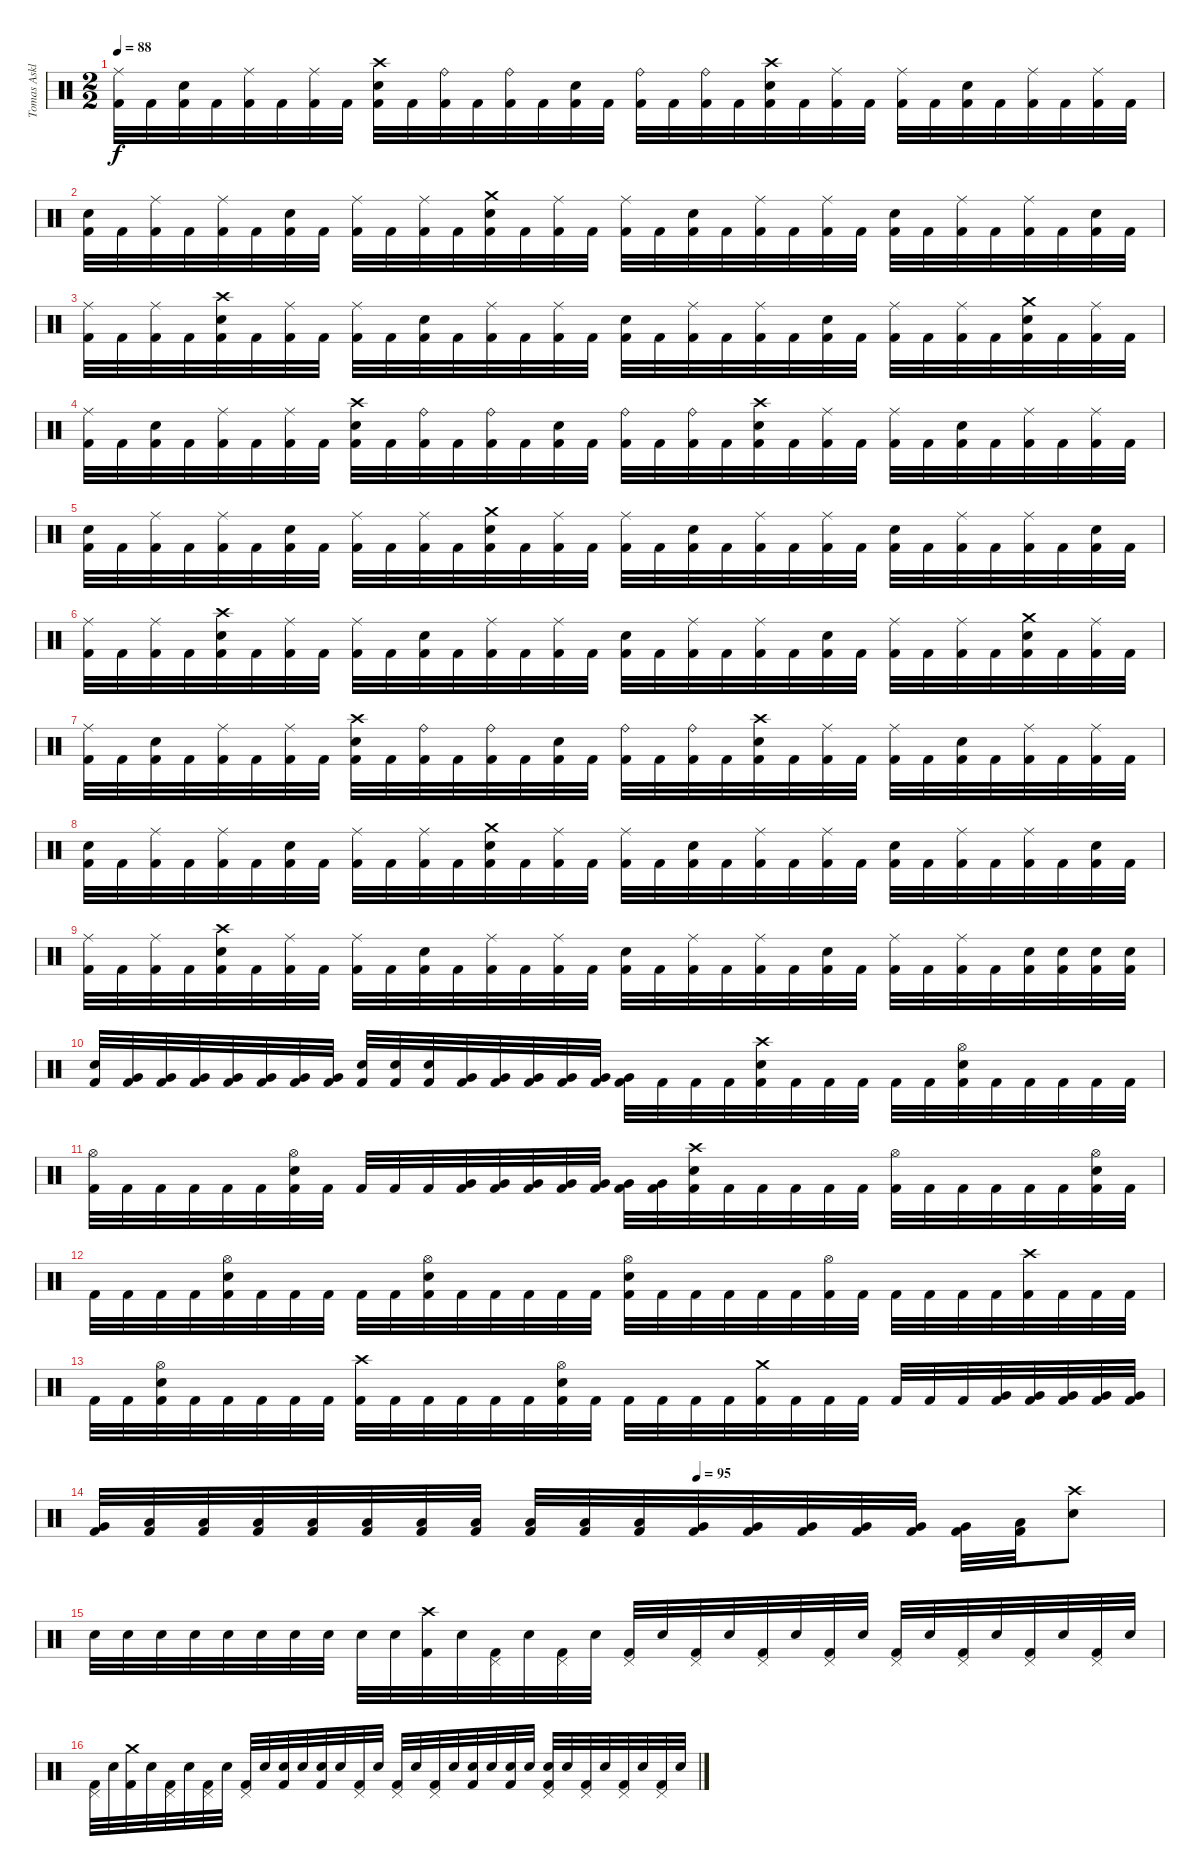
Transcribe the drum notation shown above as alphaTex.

\track ("Tomas Asklund" "Tomas Askl") {instrument percussion}
\staff {score}
\articulation defaults
\ts (2 2)
\tempo 88
\clef neutral
\ks c
("Ride (middle)" "Kick (hit) 2").32{dy f} "Kick (hit) 2".32 ("Snare (hit) 2" "Kick (hit) 2").32 "Kick (hit) 2".32 ("Ride (middle)" "Kick (hit) 2").32 "Kick (hit) 2".32 ("Ride (middle)" "Kick (hit) 2").32 "Kick (hit) 2".32 ("Crash high (hit)" "Snare (hit) 2" "Kick (hit) 2").32 "Kick (hit) 2".32 ("Ride (bell)" "Kick (hit) 2").32 "Kick (hit) 2".32 ("Ride (bell)" "Kick (hit) 2").32 "Kick (hit) 2".32 ("Snare (hit) 2" "Kick (hit) 2").32 "Kick (hit) 2".32 ("Ride (bell)" "Kick (hit) 2").32 "Kick (hit) 2".32 ("Ride (bell)" "Kick (hit) 2").32 "Kick (hit) 2".32 ("Crash high (hit)" "Snare (hit) 2" "Kick (hit) 2").32 "Kick (hit) 2".32 ("Ride (middle)" "Kick (hit) 2").32 "Kick (hit) 2".32 ("Ride (middle)" "Kick (hit) 2").32 "Kick (hit) 2".32 ("Snare (hit) 2" "Kick (hit) 2").32 "Kick (hit) 2".32 ("Ride (middle)" "Kick (hit) 2").32 "Kick (hit) 2".32 ("Ride (middle)" "Kick (hit) 2").32 "Kick (hit) 2".32 |
("Snare (hit) 2" "Kick (hit) 2").32 "Kick (hit) 2".32 ("Ride (middle)" "Kick (hit) 2").32 "Kick (hit) 2".32 ("Ride (middle)" "Kick (hit) 2").32 "Kick (hit) 2".32 ("Snare (hit) 2" "Kick (hit) 2").32 "Kick (hit) 2".32 ("Ride (middle)" "Kick (hit) 2").32 "Kick (hit) 2".32 ("Ride (middle)" "Kick (hit) 2").32 "Kick (hit) 2".32 ("Crash medium (hit)" "Snare (hit) 2" "Kick (hit) 2").32 "Kick (hit) 2".32 ("Ride (middle)" "Kick (hit) 2").32 "Kick (hit) 2".32 ("Ride (middle)" "Kick (hit) 2").32 "Kick (hit) 2".32 ("Snare (hit) 2" "Kick (hit) 2").32 "Kick (hit) 2".32 ("Ride (middle)" "Kick (hit) 2").32 "Kick (hit) 2".32 ("Ride (middle)" "Kick (hit) 2").32 "Kick (hit) 2".32 ("Snare (hit) 2" "Kick (hit) 2").32 "Kick (hit) 2".32 ("Ride (middle)" "Kick (hit) 2").32 "Kick (hit) 2".32 ("Ride (middle)" "Kick (hit) 2").32 "Kick (hit) 2".32 ("Snare (hit) 2" "Kick (hit) 2").32 "Kick (hit) 2".32 |
("Ride (middle)" "Kick (hit) 2").32 "Kick (hit) 2".32 ("Ride (middle)" "Kick (hit) 2").32 "Kick (hit) 2".32 ("Crash high (hit)" "Snare (hit) 2" "Kick (hit) 2").32 "Kick (hit) 2".32 ("Ride (middle)" "Kick (hit) 2").32 "Kick (hit) 2".32 ("Ride (middle)" "Kick (hit) 2").32 "Kick (hit) 2".32 ("Snare (hit) 2" "Kick (hit) 2").32 "Kick (hit) 2".32 ("Ride (middle)" "Kick (hit) 2").32 "Kick (hit) 2".32 ("Ride (middle)" "Kick (hit) 2").32 "Kick (hit) 2".32 ("Snare (hit) 2" "Kick (hit) 2").32 "Kick (hit) 2".32 ("Ride (middle)" "Kick (hit) 2").32 "Kick (hit) 2".32 ("Ride (middle)" "Kick (hit) 2").32 "Kick (hit) 2".32 ("Snare (hit) 2" "Kick (hit) 2").32 "Kick (hit) 2".32 ("Ride (middle)" "Kick (hit) 2").32 "Kick (hit) 2".32 ("Ride (middle)" "Kick (hit) 2").32 "Kick (hit) 2".32 ("Crash medium (hit)" "Snare (hit) 2" "Kick (hit) 2").32 "Kick (hit) 2".32 ("Ride (middle)" "Kick (hit) 2").32 "Kick (hit) 2".32 |
("Ride (middle)" "Kick (hit) 2").32 "Kick (hit) 2".32 ("Snare (hit) 2" "Kick (hit) 2").32 "Kick (hit) 2".32 ("Ride (middle)" "Kick (hit) 2").32 "Kick (hit) 2".32 ("Ride (middle)" "Kick (hit) 2").32 "Kick (hit) 2".32 ("Crash high (hit)" "Snare (hit) 2" "Kick (hit) 2").32 "Kick (hit) 2".32 ("Ride (bell)" "Kick (hit) 2").32 "Kick (hit) 2".32 ("Ride (bell)" "Kick (hit) 2").32 "Kick (hit) 2".32 ("Snare (hit) 2" "Kick (hit) 2").32 "Kick (hit) 2".32 ("Ride (bell)" "Kick (hit) 2").32 "Kick (hit) 2".32 ("Ride (bell)" "Kick (hit) 2").32 "Kick (hit) 2".32 ("Crash high (hit)" "Snare (hit) 2" "Kick (hit) 2").32 "Kick (hit) 2".32 ("Ride (middle)" "Kick (hit) 2").32 "Kick (hit) 2".32 ("Ride (middle)" "Kick (hit) 2").32 "Kick (hit) 2".32 ("Snare (hit) 2" "Kick (hit) 2").32 "Kick (hit) 2".32 ("Ride (middle)" "Kick (hit) 2").32 "Kick (hit) 2".32 ("Ride (middle)" "Kick (hit) 2").32 "Kick (hit) 2".32 |
("Snare (hit) 2" "Kick (hit) 2").32 "Kick (hit) 2".32 ("Ride (middle)" "Kick (hit) 2").32 "Kick (hit) 2".32 ("Ride (middle)" "Kick (hit) 2").32 "Kick (hit) 2".32 ("Snare (hit) 2" "Kick (hit) 2").32 "Kick (hit) 2".32 ("Ride (middle)" "Kick (hit) 2").32 "Kick (hit) 2".32 ("Ride (middle)" "Kick (hit) 2").32 "Kick (hit) 2".32 ("Crash medium (hit)" "Snare (hit) 2" "Kick (hit) 2").32 "Kick (hit) 2".32 ("Ride (middle)" "Kick (hit) 2").32 "Kick (hit) 2".32 ("Ride (middle)" "Kick (hit) 2").32 "Kick (hit) 2".32 ("Snare (hit) 2" "Kick (hit) 2").32 "Kick (hit) 2".32 ("Ride (middle)" "Kick (hit) 2").32 "Kick (hit) 2".32 ("Ride (middle)" "Kick (hit) 2").32 "Kick (hit) 2".32 ("Snare (hit) 2" "Kick (hit) 2").32 "Kick (hit) 2".32 ("Ride (middle)" "Kick (hit) 2").32 "Kick (hit) 2".32 ("Ride (middle)" "Kick (hit) 2").32 "Kick (hit) 2".32 ("Snare (hit) 2" "Kick (hit) 2").32 "Kick (hit) 2".32 |
("Ride (middle)" "Kick (hit) 2").32 "Kick (hit) 2".32 ("Ride (middle)" "Kick (hit) 2").32 "Kick (hit) 2".32 ("Crash high (hit)" "Snare (hit) 2" "Kick (hit) 2").32 "Kick (hit) 2".32 ("Ride (middle)" "Kick (hit) 2").32 "Kick (hit) 2".32 ("Ride (middle)" "Kick (hit) 2").32 "Kick (hit) 2".32 ("Snare (hit) 2" "Kick (hit) 2").32 "Kick (hit) 2".32 ("Ride (middle)" "Kick (hit) 2").32 "Kick (hit) 2".32 ("Ride (middle)" "Kick (hit) 2").32 "Kick (hit) 2".32 ("Snare (hit) 2" "Kick (hit) 2").32 "Kick (hit) 2".32 ("Ride (middle)" "Kick (hit) 2").32 "Kick (hit) 2".32 ("Ride (middle)" "Kick (hit) 2").32 "Kick (hit) 2".32 ("Snare (hit) 2" "Kick (hit) 2").32 "Kick (hit) 2".32 ("Ride (middle)" "Kick (hit) 2").32 "Kick (hit) 2".32 ("Ride (middle)" "Kick (hit) 2").32 "Kick (hit) 2".32 ("Crash medium (hit)" "Snare (hit) 2" "Kick (hit) 2").32 "Kick (hit) 2".32 ("Ride (middle)" "Kick (hit) 2").32 "Kick (hit) 2".32 |
("Ride (middle)" "Kick (hit) 2").32 "Kick (hit) 2".32 ("Snare (hit) 2" "Kick (hit) 2").32 "Kick (hit) 2".32 ("Ride (middle)" "Kick (hit) 2").32 "Kick (hit) 2".32 ("Ride (middle)" "Kick (hit) 2").32 "Kick (hit) 2".32 ("Crash high (hit)" "Snare (hit) 2" "Kick (hit) 2").32 "Kick (hit) 2".32 ("Ride (bell)" "Kick (hit) 2").32 "Kick (hit) 2".32 ("Ride (bell)" "Kick (hit) 2").32 "Kick (hit) 2".32 ("Snare (hit) 2" "Kick (hit) 2").32 "Kick (hit) 2".32 ("Ride (bell)" "Kick (hit) 2").32 "Kick (hit) 2".32 ("Ride (bell)" "Kick (hit) 2").32 "Kick (hit) 2".32 ("Crash high (hit)" "Snare (hit) 2" "Kick (hit) 2").32 "Kick (hit) 2".32 ("Ride (middle)" "Kick (hit) 2").32 "Kick (hit) 2".32 ("Ride (middle)" "Kick (hit) 2").32 "Kick (hit) 2".32 ("Snare (hit) 2" "Kick (hit) 2").32 "Kick (hit) 2".32 ("Ride (middle)" "Kick (hit) 2").32 "Kick (hit) 2".32 ("Ride (middle)" "Kick (hit) 2").32 "Kick (hit) 2".32 |
("Snare (hit) 2" "Kick (hit) 2").32 "Kick (hit) 2".32 ("Ride (middle)" "Kick (hit) 2").32 "Kick (hit) 2".32 ("Ride (middle)" "Kick (hit) 2").32 "Kick (hit) 2".32 ("Snare (hit) 2" "Kick (hit) 2").32 "Kick (hit) 2".32 ("Ride (middle)" "Kick (hit) 2").32 "Kick (hit) 2".32 ("Ride (middle)" "Kick (hit) 2").32 "Kick (hit) 2".32 ("Crash medium (hit)" "Snare (hit) 2" "Kick (hit) 2").32 "Kick (hit) 2".32 ("Ride (middle)" "Kick (hit) 2").32 "Kick (hit) 2".32 ("Ride (middle)" "Kick (hit) 2").32 "Kick (hit) 2".32 ("Snare (hit) 2" "Kick (hit) 2").32 "Kick (hit) 2".32 ("Ride (middle)" "Kick (hit) 2").32 "Kick (hit) 2".32 ("Ride (middle)" "Kick (hit) 2").32 "Kick (hit) 2".32 ("Snare (hit) 2" "Kick (hit) 2").32 "Kick (hit) 2".32 ("Ride (middle)" "Kick (hit) 2").32 "Kick (hit) 2".32 ("Ride (middle)" "Kick (hit) 2").32 "Kick (hit) 2".32 ("Snare (hit) 2" "Kick (hit) 2").32 "Kick (hit) 2".32 |
("Ride (middle)" "Kick (hit) 2").32 "Kick (hit) 2".32 ("Ride (middle)" "Kick (hit) 2").32 "Kick (hit) 2".32 ("Crash high (hit)" "Snare (hit) 2" "Kick (hit) 2").32 "Kick (hit) 2".32 ("Ride (middle)" "Kick (hit) 2").32 "Kick (hit) 2".32 ("Ride (middle)" "Kick (hit) 2").32 "Kick (hit) 2".32 ("Snare (hit) 2" "Kick (hit) 2").32 "Kick (hit) 2".32 ("Ride (middle)" "Kick (hit) 2").32 "Kick (hit) 2".32 ("Ride (middle)" "Kick (hit) 2").32 "Kick (hit) 2".32 ("Snare (hit) 2" "Kick (hit) 2").32 "Kick (hit) 2".32 ("Ride (middle)" "Kick (hit) 2").32 "Kick (hit) 2".32 ("Ride (middle)" "Kick (hit) 2").32 "Kick (hit) 2".32 ("Snare (hit) 2" "Kick (hit) 2").32 "Kick (hit) 2".32 ("Ride (middle)" "Kick (hit) 2").32 "Kick (hit) 2".32 ("Ride (middle)" "Kick (hit) 2").32 "Kick (hit) 2".32 ("Electric Snare (hit)" "Kick (hit) 2").32 ("Electric Snare (hit)" "Kick (hit) 2").32 ("Electric Snare (hit)" "Kick (hit) 2").32 ("Electric Snare (hit)" "Kick (hit) 2").32 |
("Electric Snare (hit)" "Kick (hit) 2").32 ("Very Low Tom (hit)" "Kick (hit) 2").32 ("Very Low Tom (hit)" "Kick (hit) 2").32 ("Very Low Tom (hit)" "Kick (hit) 2").32 ("Very Low Tom (hit)" "Kick (hit) 2").32 ("Very Low Tom (hit)" "Kick (hit) 2").32 ("Very Low Tom (hit)" "Kick (hit) 2").32 ("Very Low Tom (hit)" "Kick (hit) 2").32 ("Electric Snare (hit)" "Kick (hit) 2").32 ("Electric Snare (hit)" "Kick (hit) 2").32 ("Electric Snare (hit)" "Kick (hit) 2").32 ("Very Low Tom (hit)" "Kick (hit) 2").32 ("Very Low Tom (hit)" "Kick (hit) 2").32 ("Very Low Tom (hit)" "Kick (hit) 2").32 ("Very Low Tom (hit)" "Kick (hit) 2").32 ("Very Low Tom (hit)" "Kick (hit) 2").32 ("Very Low Tom (hit)" "Kick (hit) 2").32 "Kick (hit) 2".32 "Kick (hit) 2".32 "Kick (hit) 2".32 ("Crash high (hit)" "Snare (hit) 2" "Kick (hit) 2").32 "Kick (hit) 2".32 "Kick (hit) 2".32 "Kick (hit) 2".32 "Kick (hit) 2".32 "Kick (hit) 2".32 ("Hi-Hat (open)" "Snare (hit) 2" "Kick (hit) 2").32 "Kick (hit) 2".32 "Kick (hit) 2".32 "Kick (hit) 2".32 "Kick (hit) 2".32 "Kick (hit) 2".32 |
("Hi-Hat (open)" "Kick (hit) 2").32 "Kick (hit) 2".32 "Kick (hit) 2".32 "Kick (hit) 2".32 "Kick (hit) 2".32 "Kick (hit) 2".32 ("Hi-Hat (open)" "Snare (hit) 2" "Kick (hit) 2").32 "Kick (hit) 2".32 "Kick (hit) 2".32 "Kick (hit) 2".32 "Kick (hit) 2".32 ("Very Low Tom (hit)" "Kick (hit) 2").32 ("Very Low Tom (hit)" "Kick (hit) 2").32 ("Very Low Tom (hit)" "Kick (hit) 2").32 ("Very Low Tom (hit)" "Kick (hit) 2").32 ("Very Low Tom (hit)" "Kick (hit) 2").32 ("Very Low Tom (hit)" "Kick (hit) 2").32 ("Very Low Tom (hit)" "Kick (hit) 2").32 ("Crash high (hit)" "Snare (hit) 2" "Kick (hit) 2").32 "Kick (hit) 2".32 "Kick (hit) 2".32 "Kick (hit) 2".32 "Kick (hit) 2".32 "Kick (hit) 2".32 ("Hi-Hat (open)" "Kick (hit) 2").32 "Kick (hit) 2".32 "Kick (hit) 2".32 "Kick (hit) 2".32 "Kick (hit) 2".32 "Kick (hit) 2".32 ("Hi-Hat (open)" "Snare (hit) 2" "Kick (hit) 2").32 "Kick (hit) 2".32 |
"Kick (hit) 2".32 "Kick (hit) 2".32 "Kick (hit) 2".32 "Kick (hit) 2".32 ("Hi-Hat (open)" "Snare (hit) 2" "Kick (hit) 2").32 "Kick (hit) 2".32 "Kick (hit) 2".32 "Kick (hit) 2".32 "Kick (hit) 2".32 "Kick (hit) 2".32 ("Hi-Hat (open)" "Snare (hit) 2" "Kick (hit) 2").32 "Kick (hit) 2".32 "Kick (hit) 2".32 "Kick (hit) 2".32 "Kick (hit) 2".32 "Kick (hit) 2".32 ("Hi-Hat (open)" "Snare (hit) 2" "Kick (hit) 2").32 "Kick (hit) 2".32 "Kick (hit) 2".32 "Kick (hit) 2".32 "Kick (hit) 2".32 "Kick (hit) 2".32 ("Hi-Hat (open)" "Kick (hit) 2").32 "Kick (hit) 2".32 "Kick (hit) 2".32 "Kick (hit) 2".32 "Kick (hit) 2".32 "Kick (hit) 2".32 ("Crash high (hit)" "Kick (hit) 2").32 "Kick (hit) 2".32 "Kick (hit) 2".32 "Kick (hit) 2".32 |
"Kick (hit) 2".32 "Kick (hit) 2".32 ("Hi-Hat (open)" "Snare (hit) 2" "Kick (hit) 2").32 "Kick (hit) 2".32 "Kick (hit) 2".32 "Kick (hit) 2".32 "Kick (hit) 2".32 "Kick (hit) 2".32 ("Crash high (hit)" "Kick (hit) 2").32 "Kick (hit) 2".32 "Kick (hit) 2".32 "Kick (hit) 2".32 "Kick (hit) 2".32 "Kick (hit) 2".32 ("Hi-Hat (open)" "Snare (hit) 2" "Kick (hit) 2").32 "Kick (hit) 2".32 "Kick (hit) 2".32 "Kick (hit) 2".32 "Kick (hit) 2".32 "Kick (hit) 2".32 ("Crash medium (hit)" "Kick (hit) 2").32 "Kick (hit) 2".32 "Kick (hit) 2".32 "Kick (hit) 2".32 "Kick (hit) 2".32 "Kick (hit) 2".32 "Kick (hit) 2".32 ("Very Low Tom (hit)" "Kick (hit) 2").32 ("Very Low Tom (hit)" "Kick (hit) 2").32 ("Very Low Tom (hit)" "Kick (hit) 2").32 ("Very Low Tom (hit)" "Kick (hit) 2").32 ("Very Low Tom (hit)" "Kick (hit) 2").32 |
\tempo (95 0.5625)
("Very Low Tom (hit)" "Kick (hit) 2").32 ("Low Tom (hit)" "Kick (hit) 2").32 ("Low Tom (hit)" "Kick (hit) 2").32 ("Low Tom (hit)" "Kick (hit) 2").32 ("Low Tom (hit)" "Kick (hit) 2").32 ("Low Tom (hit)" "Kick (hit) 2").32 ("Low Tom (hit)" "Kick (hit) 2").32 ("Low Tom (hit)" "Kick (hit) 2").32 ("Low Tom (hit)" "Kick (hit) 2").32 ("Low Tom (hit)" "Kick (hit) 2").32 ("Low Tom (hit)" "Kick (hit) 2").32 ("Very Low Tom (hit)" "Kick (hit) 2").32 ("Very Low Tom (hit)" "Kick (hit) 2").32 ("Very Low Tom (hit)" "Kick (hit) 2").32 ("Very Low Tom (hit)" "Kick (hit) 2").32 ("Very Low Tom (hit)" "Kick (hit) 2").32 ("Very Low Tom (hit)" "Kick (hit) 2").32 ("Low Tom (hit)" "Kick (hit) 2").32 ("Crash high (hit)" "Snare (hit) 2").8 |
"Snare (hit)".32 "Snare (hit)".32 "Snare (hit)".32 "Snare (hit)".32 "Snare (hit)".32 "Snare (hit)".32 "Snare (hit)".32 "Snare (hit)".32 "Snare (hit)".32 "Snare (hit)".32 ("Crash high (hit)" "Kick (hit) 2").32 "Snare (hit) 2".32 ("Pedal Hi-Hat (hit)" "Kick (hit) 2").32 "Snare (hit) 2".32 ("Pedal Hi-Hat (hit)" "Kick (hit) 2").32 "Snare (hit) 2".32 ("Pedal Hi-Hat (hit)" "Kick (hit) 2").32 "Snare (hit) 2".32 ("Pedal Hi-Hat (hit)" "Kick (hit) 2").32 "Snare (hit) 2".32 ("Pedal Hi-Hat (hit)" "Kick (hit) 2").32 "Snare (hit) 2".32 ("Pedal Hi-Hat (hit)" "Kick (hit) 2").32 "Snare (hit) 2".32 ("Pedal Hi-Hat (hit)" "Kick (hit) 2").32 "Snare (hit) 2".32 ("Pedal Hi-Hat (hit)" "Kick (hit) 2").32 "Snare (hit) 2".32 ("Pedal Hi-Hat (hit)" "Kick (hit) 2").32 "Snare (hit) 2".32 ("Pedal Hi-Hat (hit)" "Kick (hit) 2").32 "Snare (hit) 2".32 |
("Pedal Hi-Hat (hit)" "Kick (hit) 2").32 "Snare (hit) 2".32 ("Crash medium (hit)" "Kick (hit) 2").32 "Snare (hit) 2".32 ("Pedal Hi-Hat (hit)" "Kick (hit) 2").32 "Snare (hit) 2".32 ("Pedal Hi-Hat (hit)" "Kick (hit) 2").32 "Snare (hit) 2".32 ("Pedal Hi-Hat (hit)" "Kick (hit) 2").32 "Electric Snare (hit)".32 ("Electric Snare (hit)" "Kick (hit) 2").32 "Electric Snare (hit)".32 ("Electric Snare (hit)" "Kick (hit) 2").32 "Electric Snare (hit)".32 ("Pedal Hi-Hat (hit)" "Kick (hit) 2").32 "Snare (hit) 2".32 ("Pedal Hi-Hat (hit)" "Kick (hit) 2").32 "Snare (hit) 2".32 ("Pedal Hi-Hat (hit)" "Kick (hit) 2").32 "Snare (hit) 2".32 ("Electric Snare (hit)" "Kick (hit) 2").32 "Electric Snare (hit)".32 ("Electric Snare (hit)" "Kick (hit) 2").32 "Electric Snare (hit)".32 ("Pedal Hi-Hat (hit)" "Electric Snare (hit)" "Kick (hit) 2").32 "Snare (hit) 2".32 ("Pedal Hi-Hat (hit)" "Kick (hit) 2").32 "Snare (hit) 2".32 ("Pedal Hi-Hat (hit)" "Kick (hit) 2").32 "Snare (hit) 2".32 ("Pedal Hi-Hat (hit)" "Kick (hit) 2").32 "Snare (hit) 2".32
